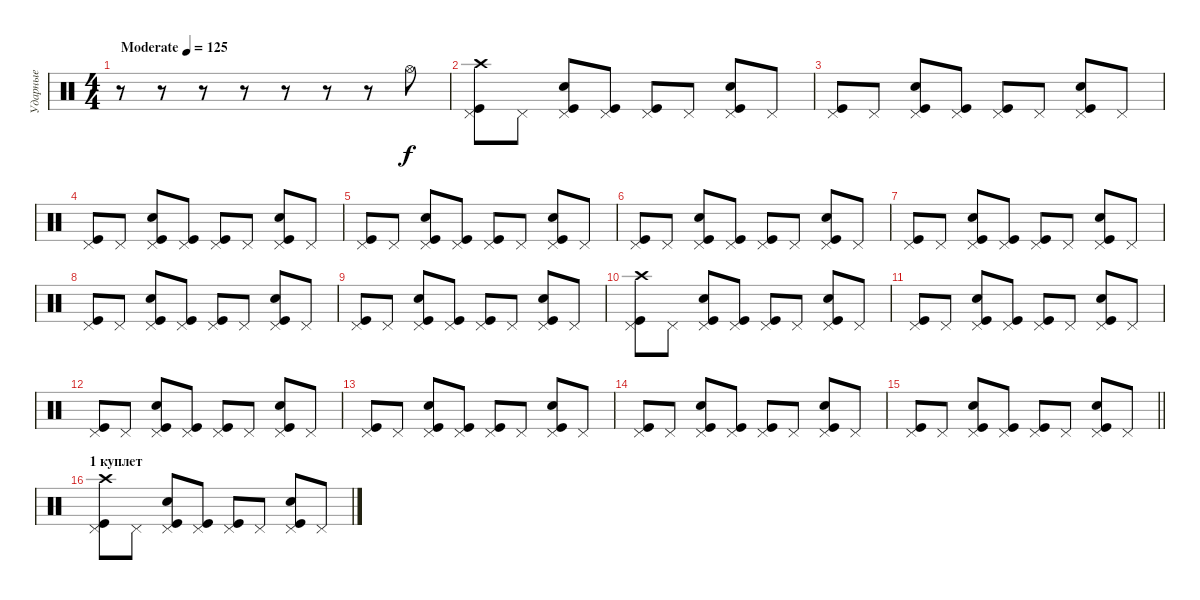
\track ("Ударные" "Ударные") {instrument percussion}
\staff {score}
\articulation defaults
\ts (4 4)
\tempo (125 "Moderate")
\clef neutral
\ks c
r.8{dy f} r.8 r.8 r.8 r.8 r.8 r.8 "Hi-Hat (open)".8 |
("Pedal Hi-Hat (hit)" "Kick (hit)" "Crash high (hit)").8 "Pedal Hi-Hat (hit)".8 ("Pedal Hi-Hat (hit)" "Kick (hit)" "Snare (hit) 2").8 ("Pedal Hi-Hat (hit)" "Kick (hit)").8 ("Pedal Hi-Hat (hit)" "Kick (hit)").8 "Pedal Hi-Hat (hit)".8 ("Pedal Hi-Hat (hit)" "Kick (hit)" "Snare (hit) 2").8 "Pedal Hi-Hat (hit)".8 |
("Pedal Hi-Hat (hit)" "Kick (hit)").8 "Pedal Hi-Hat (hit)".8 ("Pedal Hi-Hat (hit)" "Kick (hit)" "Snare (hit) 2").8 ("Pedal Hi-Hat (hit)" "Kick (hit)").8 ("Pedal Hi-Hat (hit)" "Kick (hit)").8 "Pedal Hi-Hat (hit)".8 ("Pedal Hi-Hat (hit)" "Kick (hit)" "Snare (hit) 2").8 "Pedal Hi-Hat (hit)".8 |
("Pedal Hi-Hat (hit)" "Kick (hit)").8 "Pedal Hi-Hat (hit)".8 ("Pedal Hi-Hat (hit)" "Kick (hit)" "Snare (hit) 2").8 ("Pedal Hi-Hat (hit)" "Kick (hit)").8 ("Pedal Hi-Hat (hit)" "Kick (hit)").8 "Pedal Hi-Hat (hit)".8 ("Pedal Hi-Hat (hit)" "Kick (hit)" "Snare (hit) 2").8 "Pedal Hi-Hat (hit)".8 |
("Pedal Hi-Hat (hit)" "Kick (hit)").8 "Pedal Hi-Hat (hit)".8 ("Pedal Hi-Hat (hit)" "Kick (hit)" "Snare (hit) 2").8 ("Pedal Hi-Hat (hit)" "Kick (hit)").8 ("Pedal Hi-Hat (hit)" "Kick (hit)").8 "Pedal Hi-Hat (hit)".8 ("Pedal Hi-Hat (hit)" "Kick (hit)" "Snare (hit) 2").8 "Pedal Hi-Hat (hit)".8 |
("Pedal Hi-Hat (hit)" "Kick (hit)").8 "Pedal Hi-Hat (hit)".8 ("Pedal Hi-Hat (hit)" "Kick (hit)" "Snare (hit) 2").8 ("Pedal Hi-Hat (hit)" "Kick (hit)").8 ("Pedal Hi-Hat (hit)" "Kick (hit)").8 "Pedal Hi-Hat (hit)".8 ("Pedal Hi-Hat (hit)" "Kick (hit)" "Snare (hit) 2").8 "Pedal Hi-Hat (hit)".8 |
("Pedal Hi-Hat (hit)" "Kick (hit)").8 "Pedal Hi-Hat (hit)".8 ("Pedal Hi-Hat (hit)" "Kick (hit)" "Snare (hit) 2").8 ("Pedal Hi-Hat (hit)" "Kick (hit)").8 ("Pedal Hi-Hat (hit)" "Kick (hit)").8 "Pedal Hi-Hat (hit)".8 ("Pedal Hi-Hat (hit)" "Kick (hit)" "Snare (hit) 2").8 "Pedal Hi-Hat (hit)".8 |
("Pedal Hi-Hat (hit)" "Kick (hit)").8 "Pedal Hi-Hat (hit)".8 ("Pedal Hi-Hat (hit)" "Kick (hit)" "Snare (hit) 2").8 ("Pedal Hi-Hat (hit)" "Kick (hit)").8 ("Pedal Hi-Hat (hit)" "Kick (hit)").8 "Pedal Hi-Hat (hit)".8 ("Pedal Hi-Hat (hit)" "Kick (hit)" "Snare (hit) 2").8 "Pedal Hi-Hat (hit)".8 |
("Pedal Hi-Hat (hit)" "Kick (hit)").8 "Pedal Hi-Hat (hit)".8 ("Pedal Hi-Hat (hit)" "Kick (hit)" "Snare (hit) 2").8 ("Pedal Hi-Hat (hit)" "Kick (hit)").8 ("Pedal Hi-Hat (hit)" "Kick (hit)").8 "Pedal Hi-Hat (hit)".8 ("Pedal Hi-Hat (hit)" "Kick (hit)" "Snare (hit) 2").8 "Pedal Hi-Hat (hit)".8 |
("Pedal Hi-Hat (hit)" "Kick (hit)" "Crash high (hit)").8 "Pedal Hi-Hat (hit)".8 ("Pedal Hi-Hat (hit)" "Kick (hit)" "Snare (hit) 2").8 ("Pedal Hi-Hat (hit)" "Kick (hit)").8 ("Pedal Hi-Hat (hit)" "Kick (hit)").8 "Pedal Hi-Hat (hit)".8 ("Pedal Hi-Hat (hit)" "Kick (hit)" "Snare (hit) 2").8 "Pedal Hi-Hat (hit)".8 |
("Pedal Hi-Hat (hit)" "Kick (hit)").8 "Pedal Hi-Hat (hit)".8 ("Pedal Hi-Hat (hit)" "Kick (hit)" "Snare (hit) 2").8 ("Pedal Hi-Hat (hit)" "Kick (hit)").8 ("Pedal Hi-Hat (hit)" "Kick (hit)").8 "Pedal Hi-Hat (hit)".8 ("Pedal Hi-Hat (hit)" "Kick (hit)" "Snare (hit) 2").8 "Pedal Hi-Hat (hit)".8 |
("Pedal Hi-Hat (hit)" "Kick (hit)").8 "Pedal Hi-Hat (hit)".8 ("Pedal Hi-Hat (hit)" "Kick (hit)" "Snare (hit) 2").8 ("Pedal Hi-Hat (hit)" "Kick (hit)").8 ("Pedal Hi-Hat (hit)" "Kick (hit)").8 "Pedal Hi-Hat (hit)".8 ("Pedal Hi-Hat (hit)" "Kick (hit)" "Snare (hit) 2").8 "Pedal Hi-Hat (hit)".8 |
("Pedal Hi-Hat (hit)" "Kick (hit)").8 "Pedal Hi-Hat (hit)".8 ("Pedal Hi-Hat (hit)" "Kick (hit)" "Snare (hit) 2").8 ("Pedal Hi-Hat (hit)" "Kick (hit)").8 ("Pedal Hi-Hat (hit)" "Kick (hit)").8 "Pedal Hi-Hat (hit)".8 ("Pedal Hi-Hat (hit)" "Kick (hit)" "Snare (hit) 2").8 "Pedal Hi-Hat (hit)".8 |
("Pedal Hi-Hat (hit)" "Kick (hit)").8 "Pedal Hi-Hat (hit)".8 ("Pedal Hi-Hat (hit)" "Kick (hit)" "Snare (hit) 2").8 ("Pedal Hi-Hat (hit)" "Kick (hit)").8 ("Pedal Hi-Hat (hit)" "Kick (hit)").8 "Pedal Hi-Hat (hit)".8 ("Pedal Hi-Hat (hit)" "Kick (hit)" "Snare (hit) 2").8 "Pedal Hi-Hat (hit)".8 |
\barLineRight lightlight
("Pedal Hi-Hat (hit)" "Kick (hit)").8 "Pedal Hi-Hat (hit)".8 ("Pedal Hi-Hat (hit)" "Kick (hit)" "Snare (hit) 2").8 ("Pedal Hi-Hat (hit)" "Kick (hit)").8 ("Pedal Hi-Hat (hit)" "Kick (hit)").8 "Pedal Hi-Hat (hit)".8 ("Pedal Hi-Hat (hit)" "Kick (hit)" "Snare (hit) 2").8 "Pedal Hi-Hat (hit)".8 |
\section ("" "1 куплет")
("Pedal Hi-Hat (hit)" "Kick (hit)" "Crash high (hit)").8 "Pedal Hi-Hat (hit)".8 ("Pedal Hi-Hat (hit)" "Kick (hit)" "Snare (hit) 2").8 ("Pedal Hi-Hat (hit)" "Kick (hit)").8 ("Pedal Hi-Hat (hit)" "Kick (hit)").8 "Pedal Hi-Hat (hit)".8 ("Pedal Hi-Hat (hit)" "Kick (hit)" "Snare (hit) 2").8 "Pedal Hi-Hat (hit)".8
